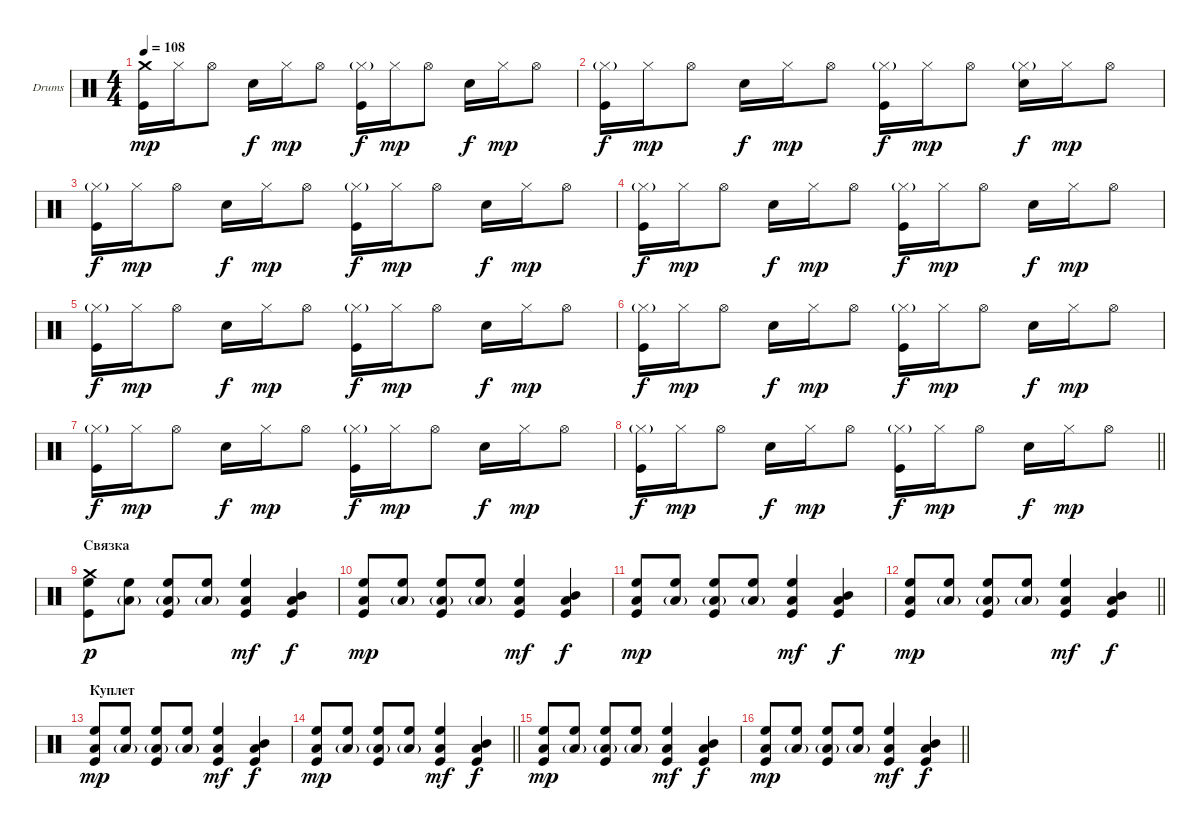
\bracketExtendMode groupsimilarinstruments
\firstSystemTrackNameOrientation horizontal
\otherSystemsTrackNameOrientation horizontal
\track ("Е. Кулаков" "Drums") {instrument percussion}
\staff {score}
\articulation defaults
\ts (4 4)
\tempo 108
\clef neutral
\ks c
("Crash medium (hit)" "Kick (hit)").16{dy mp} "Hi-Hat (closed)".16 "Hi-Hat (open)".8 "Snare (hit) 2".16{dy f} "Hi-Hat (closed)".16{dy mp} "Hi-Hat (open)".8 ("Hi-Hat (closed)"{g} "Kick (hit)").16{dy f} "Hi-Hat (closed)".16{dy mp} "Hi-Hat (open)".8 "Snare (hit) 2".16{dy f} "Hi-Hat (closed)".16{dy mp} "Hi-Hat (open)".8 |
("Hi-Hat (closed)"{g} "Kick (hit)").16{dy f} "Hi-Hat (closed)".16{dy mp} "Hi-Hat (open)".8 "Snare (hit) 2".16{dy f} "Hi-Hat (closed)".16{dy mp} "Hi-Hat (open)".8 ("Hi-Hat (closed)"{g} "Kick (hit)").16{dy f} "Hi-Hat (closed)".16{dy mp} "Hi-Hat (open)".8 ("Hi-Hat (closed)"{g} "Snare (hit) 2").16{dy f} "Hi-Hat (closed)".16{dy mp} "Hi-Hat (open)".8 |
("Hi-Hat (closed)"{g} "Kick (hit)").16{dy f} "Hi-Hat (closed)".16{dy mp} "Hi-Hat (open)".8 "Snare (hit) 2".16{dy f} "Hi-Hat (closed)".16{dy mp} "Hi-Hat (open)".8 ("Hi-Hat (closed)"{g} "Kick (hit)").16{dy f} "Hi-Hat (closed)".16{dy mp} "Hi-Hat (open)".8 "Snare (hit) 2".16{dy f} "Hi-Hat (closed)".16{dy mp} "Hi-Hat (open)".8 |
("Hi-Hat (closed)"{g} "Kick (hit)").16{dy f} "Hi-Hat (closed)".16{dy mp} "Hi-Hat (open)".8 "Snare (hit) 2".16{dy f} "Hi-Hat (closed)".16{dy mp} "Hi-Hat (open)".8 ("Hi-Hat (closed)"{g} "Kick (hit)").16{dy f} "Hi-Hat (closed)".16{dy mp} "Hi-Hat (open)".8 "Snare (hit) 2".16{dy f} "Hi-Hat (closed)".16{dy mp} "Hi-Hat (open)".8 |
("Hi-Hat (closed)"{g} "Kick (hit)").16{dy f} "Hi-Hat (closed)".16{dy mp} "Hi-Hat (open)".8 "Snare (hit) 2".16{dy f} "Hi-Hat (closed)".16{dy mp} "Hi-Hat (open)".8 ("Hi-Hat (closed)"{g} "Kick (hit)").16{dy f} "Hi-Hat (closed)".16{dy mp} "Hi-Hat (open)".8 "Snare (hit) 2".16{dy f} "Hi-Hat (closed)".16{dy mp} "Hi-Hat (open)".8 |
("Hi-Hat (closed)"{g} "Kick (hit)").16{dy f} "Hi-Hat (closed)".16{dy mp} "Hi-Hat (open)".8 "Snare (hit) 2".16{dy f} "Hi-Hat (closed)".16{dy mp} "Hi-Hat (open)".8 ("Hi-Hat (closed)"{g} "Kick (hit)").16{dy f} "Hi-Hat (closed)".16{dy mp} "Hi-Hat (open)".8 "Snare (hit) 2".16{dy f} "Hi-Hat (closed)".16{dy mp} "Hi-Hat (open)".8 |
("Hi-Hat (closed)"{g} "Kick (hit)").16{dy f} "Hi-Hat (closed)".16{dy mp} "Hi-Hat (open)".8 "Snare (hit) 2".16{dy f} "Hi-Hat (closed)".16{dy mp} "Hi-Hat (open)".8 ("Hi-Hat (closed)"{g} "Kick (hit)").16{dy f} "Hi-Hat (closed)".16{dy mp} "Hi-Hat (open)".8 "Snare (hit) 2".16{dy f} "Hi-Hat (closed)".16{dy mp} "Hi-Hat (open)".8 |
\barLineRight lightlight
("Hi-Hat (closed)"{g} "Kick (hit)").16{dy f} "Hi-Hat (closed)".16{dy mp} "Hi-Hat (open)".8 "Snare (hit) 2".16{dy f} "Hi-Hat (closed)".16{dy mp} "Hi-Hat (open)".8 ("Hi-Hat (closed)"{g} "Kick (hit)").16{dy f} "Hi-Hat (closed)".16{dy mp} "Hi-Hat (open)".8 "Snare (hit) 2".16{dy f} "Hi-Hat (closed)".16{dy mp} "Hi-Hat (open)".8 |
\section ("" "Связка")
("Crash medium (hit)" "High Floor Tom (hit)" "Kick (hit)").8{dy p} ("High Floor Tom (hit)" "Low Tom (hit)"{g}).8 ("High Floor Tom (hit)" "Low Tom (hit)"{g} "Kick (hit)").8 ("High Floor Tom (hit)" "Low Tom (hit)"{g}).8 ("High Floor Tom (hit)" "Low Tom (hit)" "Kick (hit)").4{dy mf} ("Low Tom (hit)" "Mid Tom (hit)" "Kick (hit)").4{dy f} |
("High Floor Tom (hit)" "Low Tom (hit)" "Kick (hit)").8{dy mp} ("High Floor Tom (hit)" "Low Tom (hit)"{g}).8 ("High Floor Tom (hit)" "Low Tom (hit)"{g} "Kick (hit)").8 ("High Floor Tom (hit)" "Low Tom (hit)"{g}).8 ("High Floor Tom (hit)" "Low Tom (hit)" "Kick (hit)").4{dy mf} ("Low Tom (hit)" "Mid Tom (hit)" "Kick (hit)").4{dy f} |
("High Floor Tom (hit)" "Low Tom (hit)" "Kick (hit)").8{dy mp} ("High Floor Tom (hit)" "Low Tom (hit)"{g}).8 ("High Floor Tom (hit)" "Low Tom (hit)"{g} "Kick (hit)").8 ("High Floor Tom (hit)" "Low Tom (hit)"{g}).8 ("High Floor Tom (hit)" "Low Tom (hit)" "Kick (hit)").4{dy mf} ("Low Tom (hit)" "Mid Tom (hit)" "Kick (hit)").4{dy f} |
\barLineRight lightlight
("High Floor Tom (hit)" "Low Tom (hit)" "Kick (hit)").8{dy mp} ("High Floor Tom (hit)" "Low Tom (hit)"{g}).8 ("High Floor Tom (hit)" "Low Tom (hit)"{g} "Kick (hit)").8 ("High Floor Tom (hit)" "Low Tom (hit)"{g}).8 ("High Floor Tom (hit)" "Low Tom (hit)" "Kick (hit)").4{dy mf} ("Low Tom (hit)" "Mid Tom (hit)" "Kick (hit)").4{dy f} |
\section ("" "Куплет")
("High Floor Tom (hit)" "Low Tom (hit)" "Kick (hit)").8{dy mp} ("High Floor Tom (hit)" "Low Tom (hit)"{g}).8 ("High Floor Tom (hit)" "Low Tom (hit)"{g} "Kick (hit)").8 ("High Floor Tom (hit)" "Low Tom (hit)"{g}).8 ("High Floor Tom (hit)" "Low Tom (hit)" "Kick (hit)").4{dy mf} ("Low Tom (hit)" "Mid Tom (hit)" "Kick (hit)").4{dy f} |
\barLineRight lightlight
("High Floor Tom (hit)" "Low Tom (hit)" "Kick (hit)").8{dy mp} ("High Floor Tom (hit)" "Low Tom (hit)"{g}).8 ("High Floor Tom (hit)" "Low Tom (hit)"{g} "Kick (hit)").8 ("High Floor Tom (hit)" "Low Tom (hit)"{g}).8 ("High Floor Tom (hit)" "Low Tom (hit)" "Kick (hit)").4{dy mf} ("Low Tom (hit)" "Mid Tom (hit)" "Kick (hit)").4{dy f} |
("High Floor Tom (hit)" "Low Tom (hit)" "Kick (hit)").8{dy mp} ("High Floor Tom (hit)" "Low Tom (hit)"{g}).8 ("High Floor Tom (hit)" "Low Tom (hit)"{g} "Kick (hit)").8 ("High Floor Tom (hit)" "Low Tom (hit)"{g}).8 ("High Floor Tom (hit)" "Low Tom (hit)" "Kick (hit)").4{dy mf} ("Low Tom (hit)" "Mid Tom (hit)" "Kick (hit)").4{dy f} |
\barLineRight lightlight
("High Floor Tom (hit)" "Low Tom (hit)" "Kick (hit)").8{dy mp} ("High Floor Tom (hit)" "Low Tom (hit)"{g}).8 ("High Floor Tom (hit)" "Low Tom (hit)"{g} "Kick (hit)").8 ("High Floor Tom (hit)" "Low Tom (hit)"{g}).8 ("High Floor Tom (hit)" "Low Tom (hit)" "Kick (hit)").4{dy mf} ("Low Tom (hit)" "Mid Tom (hit)" "Kick (hit)").4{dy f}
